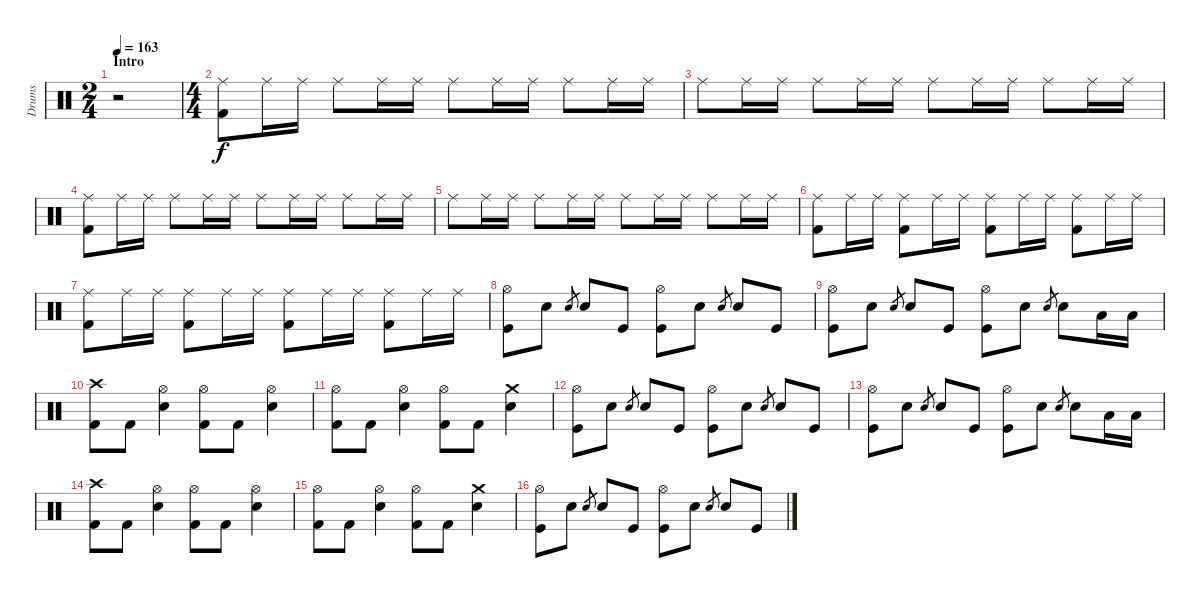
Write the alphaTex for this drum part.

\track ("Drums" "Drums") {instrument percussion}
\staff {score}
\articulation defaults
\ts (2 4)
\section ("" "Intro")
\tempo 163
\clef neutral
\ks c
r.2{dy f} |
\ts (4 4)
("Ride (middle)" "Kick (hit) 2").8 "Ride (middle)".16 "Ride (middle)".16 "Ride (middle)".8 "Ride (middle)".16 "Ride (middle)".16 "Ride (middle)".8 "Ride (middle)".16 "Ride (middle)".16 "Ride (middle)".8 "Ride (middle)".16 "Ride (middle)".16 |
"Ride (middle)".8 "Ride (middle)".16 "Ride (middle)".16 "Ride (middle)".8 "Ride (middle)".16 "Ride (middle)".16 "Ride (middle)".8 "Ride (middle)".16 "Ride (middle)".16 "Ride (middle)".8 "Ride (middle)".16 "Ride (middle)".16 |
("Ride (middle)" "Kick (hit) 2").8 "Ride (middle)".16 "Ride (middle)".16 "Ride (middle)".8 "Ride (middle)".16 "Ride (middle)".16 "Ride (middle)".8 "Ride (middle)".16 "Ride (middle)".16 "Ride (middle)".8 "Ride (middle)".16 "Ride (middle)".16 |
"Ride (middle)".8 "Ride (middle)".16 "Ride (middle)".16 "Ride (middle)".8 "Ride (middle)".16 "Ride (middle)".16 "Ride (middle)".8 "Ride (middle)".16 "Ride (middle)".16 "Ride (middle)".8 "Ride (middle)".16 "Ride (middle)".16 |
("Ride (middle)" "Kick (hit) 2").8 "Ride (middle)".16 "Ride (middle)".16 ("Ride (middle)" "Kick (hit) 2").8 "Ride (middle)".16 "Ride (middle)".16 ("Ride (middle)" "Kick (hit) 2").8 "Ride (middle)".16 "Ride (middle)".16 ("Ride (middle)" "Kick (hit) 2").8 "Ride (middle)".16 "Ride (middle)".16 |
("Ride (middle)" "Kick (hit) 2").8 "Ride (middle)".16 "Ride (middle)".16 ("Ride (middle)" "Kick (hit) 2").8 "Ride (middle)".16 "Ride (middle)".16 ("Ride (middle)" "Kick (hit) 2").8 "Ride (middle)".16 "Ride (middle)".16 ("Ride (middle)" "Kick (hit) 2").8 "Ride (middle)".16 "Ride (middle)".16 |
("Hi-Hat (open)" "Kick (hit)").8 "Electric Snare (hit)".8 "Electric Snare (hit)".8{gr} "Electric Snare (hit)".8 "Kick (hit)".8 ("Hi-Hat (open)" "Kick (hit)").8 "Electric Snare (hit)".8 "Electric Snare (hit)".8{gr} "Electric Snare (hit)".8 "Kick (hit)".8 |
("Hi-Hat (open)" "Kick (hit)").8 "Electric Snare (hit)".8 "Electric Snare (hit)".8{gr} "Electric Snare (hit)".8 "Kick (hit)".8 ("Hi-Hat (open)" "Kick (hit)").8 "Electric Snare (hit)".8 "Electric Snare (hit)".8{gr} "Electric Snare (hit)".8 "Low Tom (hit)".16 "Low Tom (hit)".16 |
("Crash high (hit)" "Kick (hit) 2").8 "Kick (hit) 2".8 ("Hi-Hat (open)" "Electric Snare (hit)").4 ("Hi-Hat (open)" "Kick (hit) 2").8 "Kick (hit) 2".8 ("Hi-Hat (open)" "Electric Snare (hit)").4 |
("Hi-Hat (open)" "Kick (hit) 2").8 "Kick (hit) 2".8 ("Hi-Hat (open)" "Electric Snare (hit)").4 ("Hi-Hat (open)" "Kick (hit) 2").8 "Kick (hit) 2".8 ("Crash medium (hit)" "Electric Snare (hit)").4 |
("Hi-Hat (open)" "Kick (hit)").8 "Electric Snare (hit)".8 "Electric Snare (hit)".8{gr} "Electric Snare (hit)".8 "Kick (hit)".8 ("Hi-Hat (open)" "Kick (hit)").8 "Electric Snare (hit)".8 "Electric Snare (hit)".8{gr} "Electric Snare (hit)".8 "Kick (hit)".8 |
("Hi-Hat (open)" "Kick (hit)").8 "Electric Snare (hit)".8 "Electric Snare (hit)".8{gr} "Electric Snare (hit)".8 "Kick (hit)".8 ("Hi-Hat (open)" "Kick (hit)").8 "Electric Snare (hit)".8 "Electric Snare (hit)".8{gr} "Electric Snare (hit)".8 "Low Tom (hit)".16 "Low Tom (hit)".16 |
("Crash high (hit)" "Kick (hit) 2").8 "Kick (hit) 2".8 ("Hi-Hat (open)" "Electric Snare (hit)").4 ("Hi-Hat (open)" "Kick (hit) 2").8 "Kick (hit) 2".8 ("Hi-Hat (open)" "Electric Snare (hit)").4 |
("Hi-Hat (open)" "Kick (hit) 2").8 "Kick (hit) 2".8 ("Hi-Hat (open)" "Electric Snare (hit)").4 ("Hi-Hat (open)" "Kick (hit) 2").8 "Kick (hit) 2".8 ("Crash medium (hit)" "Electric Snare (hit)").4 |
("Hi-Hat (open)" "Kick (hit)").8 "Electric Snare (hit)".8 "Electric Snare (hit)".8{gr} "Electric Snare (hit)".8 "Kick (hit)".8 ("Hi-Hat (open)" "Kick (hit)").8 "Electric Snare (hit)".8 "Electric Snare (hit)".8{gr} "Electric Snare (hit)".8 "Kick (hit)".8
